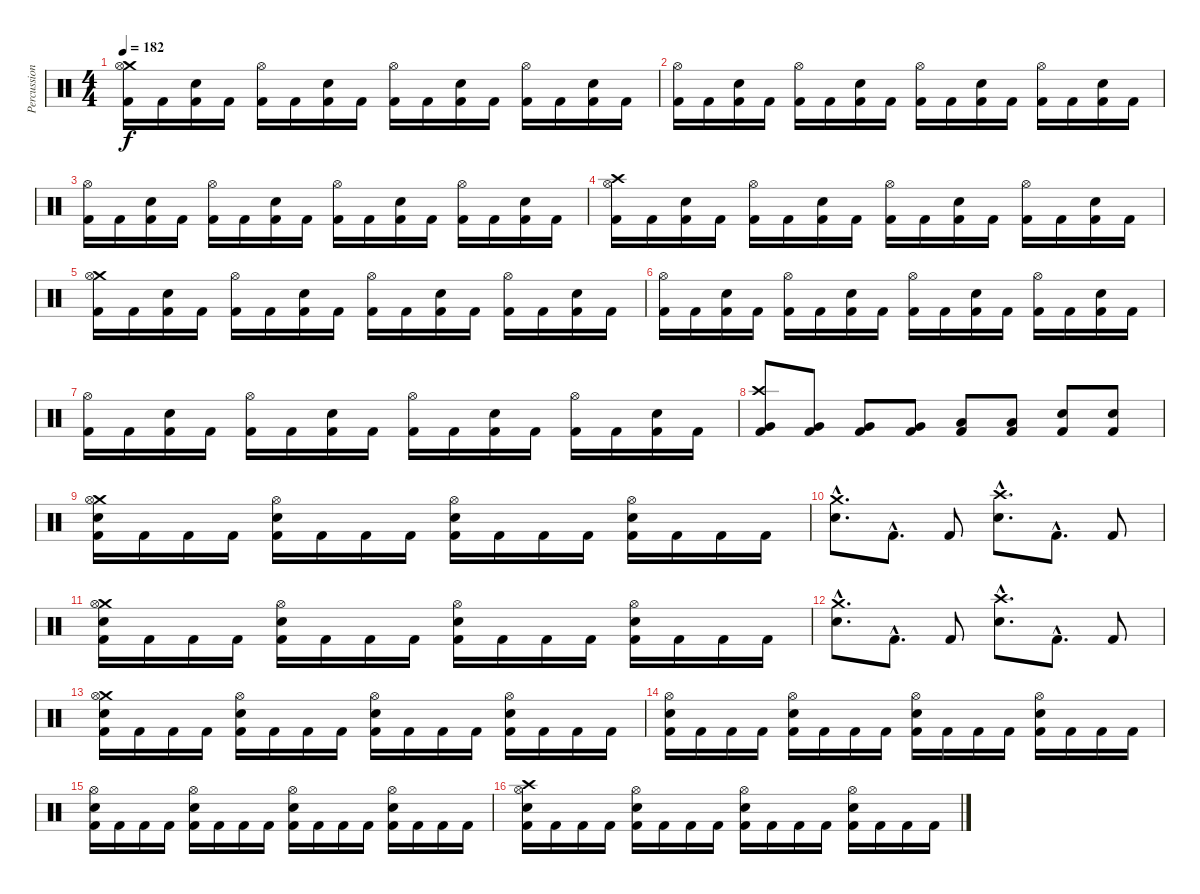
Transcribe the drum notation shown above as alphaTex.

\track ("Percussion" "Percussion") {instrument percussion}
\staff {score}
\articulation defaults
\ts (4 4)
\tempo 182
\clef neutral
\ks c
("Crash medium (hit)" "Hi-Hat (open)" "Kick (hit) 2").16{dy f} "Kick (hit) 2".16 ("Electric Snare (hit)" "Kick (hit) 2").16 "Kick (hit) 2".16 ("Hi-Hat (open)" "Kick (hit) 2").16 "Kick (hit) 2".16 ("Electric Snare (hit)" "Kick (hit) 2").16 "Kick (hit) 2".16 ("Hi-Hat (open)" "Kick (hit) 2").16 "Kick (hit) 2".16 ("Electric Snare (hit)" "Kick (hit) 2").16 "Kick (hit) 2".16 ("Hi-Hat (open)" "Kick (hit) 2").16 "Kick (hit) 2".16 ("Electric Snare (hit)" "Kick (hit) 2").16 "Kick (hit) 2".16 |
("Hi-Hat (open)" "Kick (hit) 2").16 "Kick (hit) 2".16 ("Electric Snare (hit)" "Kick (hit) 2").16 "Kick (hit) 2".16 ("Hi-Hat (open)" "Kick (hit) 2").16 "Kick (hit) 2".16 ("Electric Snare (hit)" "Kick (hit) 2").16 "Kick (hit) 2".16 ("Hi-Hat (open)" "Kick (hit) 2").16 "Kick (hit) 2".16 ("Electric Snare (hit)" "Kick (hit) 2").16 "Kick (hit) 2".16 ("Hi-Hat (open)" "Kick (hit) 2").16 "Kick (hit) 2".16 ("Electric Snare (hit)" "Kick (hit) 2").16 "Kick (hit) 2".16 |
("Hi-Hat (open)" "Kick (hit) 2").16 "Kick (hit) 2".16 ("Electric Snare (hit)" "Kick (hit) 2").16 "Kick (hit) 2".16 ("Hi-Hat (open)" "Kick (hit) 2").16 "Kick (hit) 2".16 ("Electric Snare (hit)" "Kick (hit) 2").16 "Kick (hit) 2".16 ("Hi-Hat (open)" "Kick (hit) 2").16 "Kick (hit) 2".16 ("Electric Snare (hit)" "Kick (hit) 2").16 "Kick (hit) 2".16 ("Hi-Hat (open)" "Kick (hit) 2").16 "Kick (hit) 2".16 ("Electric Snare (hit)" "Kick (hit) 2").16 "Kick (hit) 2".16 |
("Crash high (hit)" "Hi-Hat (open)" "Kick (hit) 2").16 "Kick (hit) 2".16 ("Electric Snare (hit)" "Kick (hit) 2").16 "Kick (hit) 2".16 ("Hi-Hat (open)" "Kick (hit) 2").16 "Kick (hit) 2".16 ("Electric Snare (hit)" "Kick (hit) 2").16 "Kick (hit) 2".16 ("Hi-Hat (open)" "Kick (hit) 2").16 "Kick (hit) 2".16 ("Electric Snare (hit)" "Kick (hit) 2").16 "Kick (hit) 2".16 ("Hi-Hat (open)" "Kick (hit) 2").16 "Kick (hit) 2".16 ("Electric Snare (hit)" "Kick (hit) 2").16 "Kick (hit) 2".16 |
("Crash medium (hit)" "Hi-Hat (open)" "Kick (hit) 2").16 "Kick (hit) 2".16 ("Electric Snare (hit)" "Kick (hit) 2").16 "Kick (hit) 2".16 ("Hi-Hat (open)" "Kick (hit) 2").16 "Kick (hit) 2".16 ("Electric Snare (hit)" "Kick (hit) 2").16 "Kick (hit) 2".16 ("Hi-Hat (open)" "Kick (hit) 2").16 "Kick (hit) 2".16 ("Electric Snare (hit)" "Kick (hit) 2").16 "Kick (hit) 2".16 ("Hi-Hat (open)" "Kick (hit) 2").16 "Kick (hit) 2".16 ("Electric Snare (hit)" "Kick (hit) 2").16 "Kick (hit) 2".16 |
("Hi-Hat (open)" "Kick (hit) 2").16 "Kick (hit) 2".16 ("Electric Snare (hit)" "Kick (hit) 2").16 "Kick (hit) 2".16 ("Hi-Hat (open)" "Kick (hit) 2").16 "Kick (hit) 2".16 ("Electric Snare (hit)" "Kick (hit) 2").16 "Kick (hit) 2".16 ("Hi-Hat (open)" "Kick (hit) 2").16 "Kick (hit) 2".16 ("Electric Snare (hit)" "Kick (hit) 2").16 "Kick (hit) 2".16 ("Hi-Hat (open)" "Kick (hit) 2").16 "Kick (hit) 2".16 ("Electric Snare (hit)" "Kick (hit) 2").16 "Kick (hit) 2".16 |
("Hi-Hat (open)" "Kick (hit) 2").16 "Kick (hit) 2".16 ("Electric Snare (hit)" "Kick (hit) 2").16 "Kick (hit) 2".16 ("Hi-Hat (open)" "Kick (hit) 2").16 "Kick (hit) 2".16 ("Electric Snare (hit)" "Kick (hit) 2").16 "Kick (hit) 2".16 ("Hi-Hat (open)" "Kick (hit) 2").16 "Kick (hit) 2".16 ("Electric Snare (hit)" "Kick (hit) 2").16 "Kick (hit) 2".16 ("Hi-Hat (open)" "Kick (hit) 2").16 "Kick (hit) 2".16 ("Electric Snare (hit)" "Kick (hit) 2").16 "Kick (hit) 2".16 |
("Crash high (hit)" "Very Low Tom (hit)" "Kick (hit) 2").8 ("Very Low Tom (hit)" "Kick (hit) 2").8 ("Very Low Tom (hit)" "Kick (hit) 2").8 ("Very Low Tom (hit)" "Kick (hit) 2").8 ("Low Floor Tom (hit)" "Kick (hit) 2").8 ("Low Floor Tom (hit)" "Kick (hit) 2").8 ("Electric Snare (hit)" "Kick (hit) 2").8 ("Electric Snare (hit)" "Kick (hit) 2").8 |
("Crash medium (hit)" "Hi-Hat (open)" "Electric Snare (hit)" "Kick (hit) 2").16 "Kick (hit) 2".16 "Kick (hit) 2".16 "Kick (hit) 2".16 ("Hi-Hat (open)" "Electric Snare (hit)" "Kick (hit) 2").16 "Kick (hit) 2".16 "Kick (hit) 2".16 "Kick (hit) 2".16 ("Hi-Hat (open)" "Electric Snare (hit)" "Kick (hit) 2").16 "Kick (hit) 2".16 "Kick (hit) 2".16 "Kick (hit) 2".16 ("Hi-Hat (open)" "Electric Snare (hit)" "Kick (hit) 2").16 "Kick (hit) 2".16 "Kick (hit) 2".16 "Kick (hit) 2".16 |
("Crash medium (hit)"{hac} "Electric Snare (hit)"{hac}).8{d} "Kick (hit) 2"{hac}.8{d} "Kick (hit) 2".8 ("Crash high (hit)"{hac} "Electric Snare (hit)"{hac}).8{d} "Kick (hit) 2"{hac}.8{d} "Kick (hit) 2".8 |
("Crash medium (hit)" "Hi-Hat (open)" "Electric Snare (hit)" "Kick (hit) 2").16 "Kick (hit) 2".16 "Kick (hit) 2".16 "Kick (hit) 2".16 ("Hi-Hat (open)" "Electric Snare (hit)" "Kick (hit) 2").16 "Kick (hit) 2".16 "Kick (hit) 2".16 "Kick (hit) 2".16 ("Hi-Hat (open)" "Electric Snare (hit)" "Kick (hit) 2").16 "Kick (hit) 2".16 "Kick (hit) 2".16 "Kick (hit) 2".16 ("Hi-Hat (open)" "Electric Snare (hit)" "Kick (hit) 2").16 "Kick (hit) 2".16 "Kick (hit) 2".16 "Kick (hit) 2".16 |
("Crash medium (hit)"{hac} "Electric Snare (hit)"{hac}).8{d} "Kick (hit) 2"{hac}.8{d} "Kick (hit) 2".8 ("Crash high (hit)"{hac} "Electric Snare (hit)"{hac}).8{d} "Kick (hit) 2"{hac}.8{d} "Kick (hit) 2".8 |
("Crash medium (hit)" "Hi-Hat (open)" "Electric Snare (hit)" "Kick (hit) 2").16 "Kick (hit) 2".16 "Kick (hit) 2".16 "Kick (hit) 2".16 ("Hi-Hat (open)" "Electric Snare (hit)" "Kick (hit) 2").16 "Kick (hit) 2".16 "Kick (hit) 2".16 "Kick (hit) 2".16 ("Hi-Hat (open)" "Electric Snare (hit)" "Kick (hit) 2").16 "Kick (hit) 2".16 "Kick (hit) 2".16 "Kick (hit) 2".16 ("Hi-Hat (open)" "Electric Snare (hit)" "Kick (hit) 2").16 "Kick (hit) 2".16 "Kick (hit) 2".16 "Kick (hit) 2".16 |
("Hi-Hat (open)" "Electric Snare (hit)" "Kick (hit) 2").16 "Kick (hit) 2".16 "Kick (hit) 2".16 "Kick (hit) 2".16 ("Hi-Hat (open)" "Electric Snare (hit)" "Kick (hit) 2").16 "Kick (hit) 2".16 "Kick (hit) 2".16 "Kick (hit) 2".16 ("Hi-Hat (open)" "Electric Snare (hit)" "Kick (hit) 2").16 "Kick (hit) 2".16 "Kick (hit) 2".16 "Kick (hit) 2".16 ("Hi-Hat (open)" "Electric Snare (hit)" "Kick (hit) 2").16 "Kick (hit) 2".16 "Kick (hit) 2".16 "Kick (hit) 2".16 |
("Hi-Hat (open)" "Electric Snare (hit)" "Kick (hit) 2").16 "Kick (hit) 2".16 "Kick (hit) 2".16 "Kick (hit) 2".16 ("Hi-Hat (open)" "Electric Snare (hit)" "Kick (hit) 2").16 "Kick (hit) 2".16 "Kick (hit) 2".16 "Kick (hit) 2".16 ("Hi-Hat (open)" "Electric Snare (hit)" "Kick (hit) 2").16 "Kick (hit) 2".16 "Kick (hit) 2".16 "Kick (hit) 2".16 ("Hi-Hat (open)" "Electric Snare (hit)" "Kick (hit) 2").16 "Kick (hit) 2".16 "Kick (hit) 2".16 "Kick (hit) 2".16 |
("Crash high (hit)" "Hi-Hat (open)" "Electric Snare (hit)" "Kick (hit) 2").16 "Kick (hit) 2".16 "Kick (hit) 2".16 "Kick (hit) 2".16 ("Hi-Hat (open)" "Electric Snare (hit)" "Kick (hit) 2").16 "Kick (hit) 2".16 "Kick (hit) 2".16 "Kick (hit) 2".16 ("Hi-Hat (open)" "Electric Snare (hit)" "Kick (hit) 2").16 "Kick (hit) 2".16 "Kick (hit) 2".16 "Kick (hit) 2".16 ("Hi-Hat (open)" "Electric Snare (hit)" "Kick (hit) 2").16 "Kick (hit) 2".16 "Kick (hit) 2".16 "Kick (hit) 2".16
